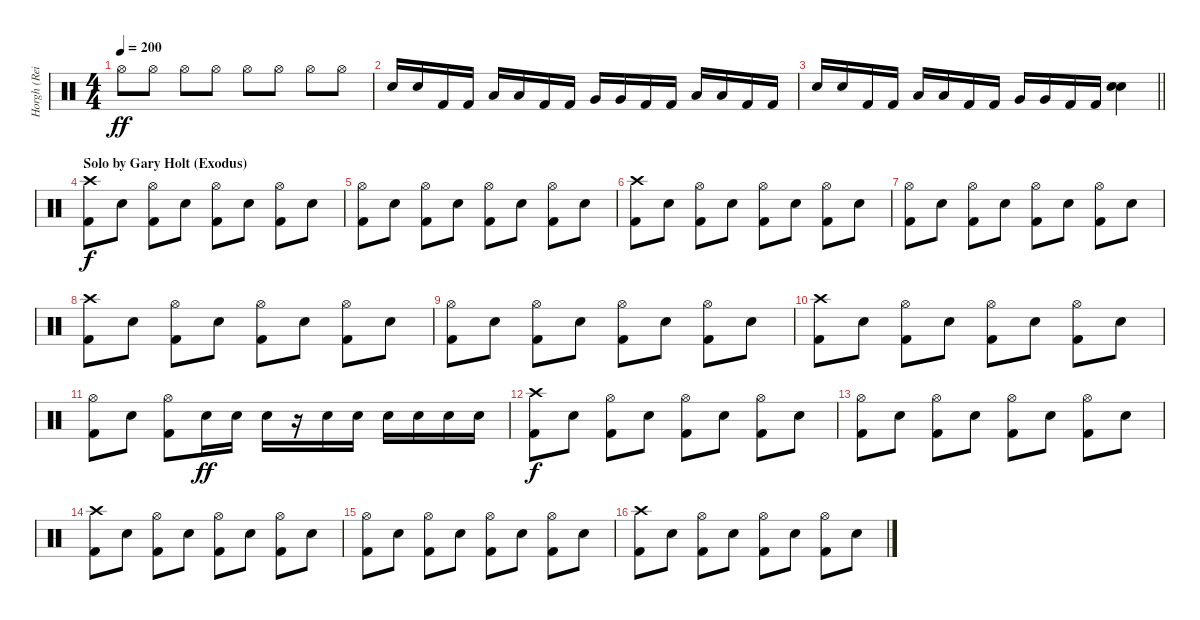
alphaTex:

\track ("Horgh (Reidar Horghagen)" "Horgh (Rei") {instrument percussion}
\staff {score}
\articulation defaults
\ts (4 4)
\tempo 200
\clef neutral
\ks c "Hi-Hat (open)".8{dy ff} "Hi-Hat (open)".8 "Hi-Hat (open)".8 "Hi-Hat (open)".8 "Hi-Hat (open)".8 "Hi-Hat (open)".8 "Hi-Hat (open)".8 "Hi-Hat (open)".8
|
"Snare (hit) 2".16 "Snare (hit) 2".16 "Kick (hit) 2".16 "Kick (hit) 2".16 "Low Tom (hit)".16 "Low Tom (hit)".16 "Kick (hit) 2".16 "Kick (hit) 2".16 "Very Low Tom (hit)".16 "Very Low Tom (hit)".16 "Kick (hit) 2".16 "Kick (hit) 2".16 "Low Floor Tom (hit)".16 "Low Floor Tom (hit)".16 "Kick (hit) 2".16 "Kick (hit) 2".16 |
\barLineRight lightlight "Snare (hit) 2".16 "Snare (hit) 2".16 "Kick (hit) 2".16 "Kick (hit) 2".16 "Low Tom (hit)".16 "Low Tom (hit)".16 "Kick (hit) 2".16 "Kick (hit) 2".16 "Very Low Tom (hit)".16 "Very Low Tom (hit)".16 "Kick (hit) 2".16 "Kick (hit) 2".16
("Snare (hit) 2" "Snare (hit) 2").4 |
\section ("" "Solo by Gary Holt (Exodus)")
("Crash high (hit)" "Kick (hit) 2").8{dy f} "Snare (hit) 2".8 ("Hi-Hat (open)" "Kick (hit) 2").8 "Snare (hit) 2".8 ("Hi-Hat (open)" "Kick (hit) 2").8 "Snare (hit) 2".8 ("Hi-Hat (open)" "Kick (hit) 2").8 "Snare (hit) 2".8 |
("Hi-Hat (open)" "Kick (hit) 2").8 "Snare (hit) 2".8 ("Hi-Hat (open)" "Kick (hit) 2").8 "Snare (hit) 2".8 ("Hi-Hat (open)" "Kick (hit) 2").8 "Snare (hit) 2".8 ("Hi-Hat (open)" "Kick (hit) 2").8 "Snare (hit) 2".8 |
("Crash high (hit)" "Kick (hit) 2").8 "Snare (hit) 2".8 ("Hi-Hat (open)" "Kick (hit) 2").8 "Snare (hit) 2".8 ("Hi-Hat (open)" "Kick (hit) 2").8 "Snare (hit) 2".8 ("Hi-Hat (open)" "Kick (hit) 2").8 "Snare (hit) 2".8 |
("Hi-Hat (open)" "Kick (hit) 2").8 "Snare (hit) 2".8 ("Hi-Hat (open)" "Kick (hit) 2").8 "Snare (hit) 2".8 ("Hi-Hat (open)" "Kick (hit) 2").8 "Snare (hit) 2".8 ("Hi-Hat (open)" "Kick (hit) 2").8 "Snare (hit) 2".8 |
("Crash high (hit)" "Kick (hit) 2").8 "Snare (hit) 2".8 ("Hi-Hat (open)" "Kick (hit) 2").8 "Snare (hit) 2".8 ("Hi-Hat (open)" "Kick (hit) 2").8 "Snare (hit) 2".8 ("Hi-Hat (open)" "Kick (hit) 2").8 "Snare (hit) 2".8 |
("Hi-Hat (open)" "Kick (hit) 2").8 "Snare (hit) 2".8 ("Hi-Hat (open)" "Kick (hit) 2").8 "Snare (hit) 2".8 ("Hi-Hat (open)" "Kick (hit) 2").8 "Snare (hit) 2".8 ("Hi-Hat (open)" "Kick (hit) 2").8 "Snare (hit) 2".8 |
("Crash high (hit)" "Kick (hit) 2").8 "Snare (hit) 2".8 ("Hi-Hat (open)" "Kick (hit) 2").8 "Snare (hit) 2".8 ("Hi-Hat (open)" "Kick (hit) 2").8 "Snare (hit) 2".8 ("Hi-Hat (open)" "Kick (hit) 2").8 "Snare (hit) 2".8 |
("Hi-Hat (open)" "Kick (hit) 2").8 "Snare (hit) 2".8 ("Hi-Hat (open)" "Kick (hit) 2").8 "Snare (hit) 2".16{dy ff} "Snare (hit) 2".16 "Snare (hit) 2".16 r.16 "Snare (hit) 2".16 "Snare (hit) 2".16 "Snare (hit) 2".16 "Snare (hit) 2".16 "Snare (hit) 2".16 "Snare (hit) 2".16 |
("Crash high (hit)" "Kick (hit) 2").8{dy f} "Snare (hit) 2".8 ("Hi-Hat (open)" "Kick (hit) 2").8 "Snare (hit) 2".8 ("Hi-Hat (open)" "Kick (hit) 2").8 "Snare (hit) 2".8 ("Hi-Hat (open)" "Kick (hit) 2").8 "Snare (hit) 2".8 |
("Hi-Hat (open)" "Kick (hit) 2").8 "Snare (hit) 2".8 ("Hi-Hat (open)" "Kick (hit) 2").8 "Snare (hit) 2".8 ("Hi-Hat (open)" "Kick (hit) 2").8 "Snare (hit) 2".8 ("Hi-Hat (open)" "Kick (hit) 2").8 "Snare (hit) 2".8 |
("Crash high (hit)" "Kick (hit) 2").8 "Snare (hit) 2".8 ("Hi-Hat (open)" "Kick (hit) 2").8 "Snare (hit) 2".8 ("Hi-Hat (open)" "Kick (hit) 2").8 "Snare (hit) 2".8 ("Hi-Hat (open)" "Kick (hit) 2").8 "Snare (hit) 2".8 |
("Hi-Hat (open)" "Kick (hit) 2").8 "Snare (hit) 2".8 ("Hi-Hat (open)" "Kick (hit) 2").8 "Snare (hit) 2".8 ("Hi-Hat (open)" "Kick (hit) 2").8 "Snare (hit) 2".8 ("Hi-Hat (open)" "Kick (hit) 2").8 "Snare (hit) 2".8 |
("Crash high (hit)" "Kick (hit) 2").8 "Snare (hit) 2".8 ("Hi-Hat (open)" "Kick (hit) 2").8 "Snare (hit) 2".8 ("Hi-Hat (open)" "Kick (hit) 2").8 "Snare (hit) 2".8 ("Hi-Hat (open)" "Kick (hit) 2").8 "Snare (hit) 2".8
